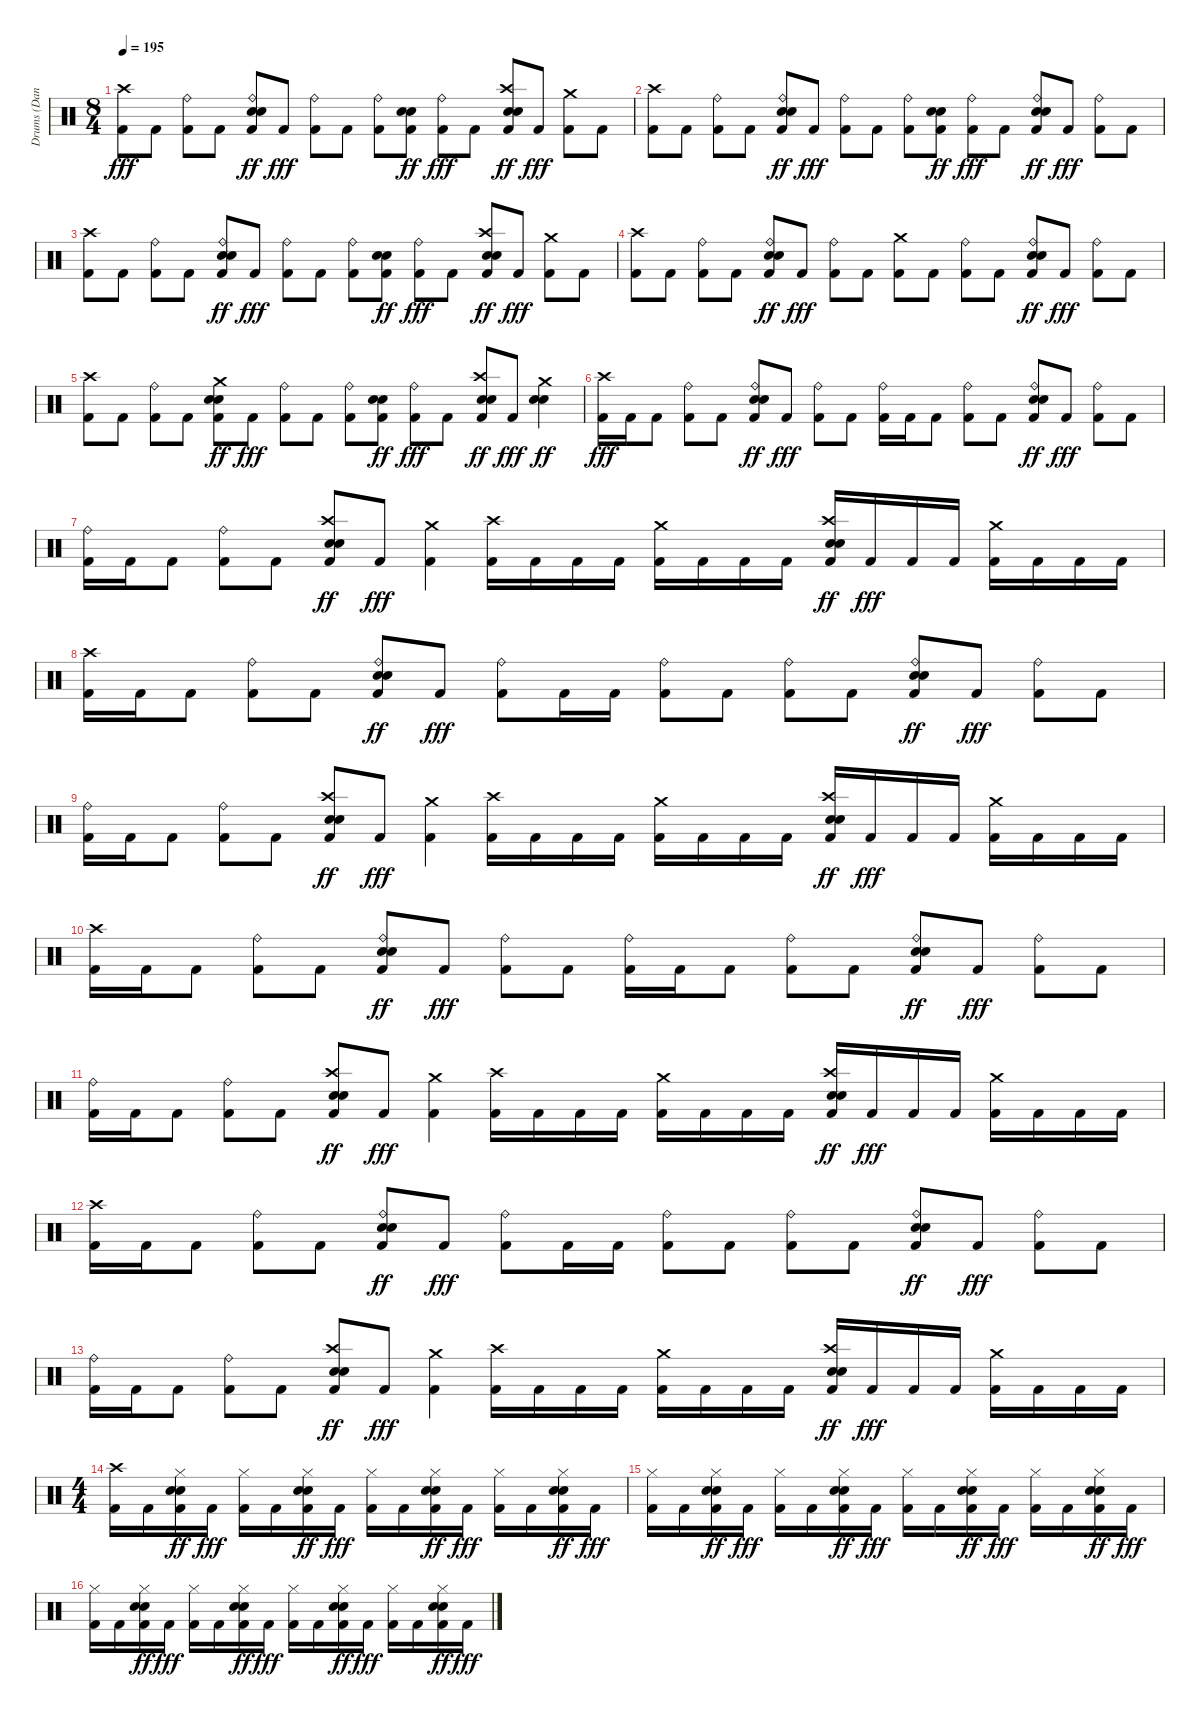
\track ("Drums (Dan Zimmermann)" "Drums (Dan") {instrument percussion}
\staff {score}
\articulation defaults
\ts (8 4)
\tempo 195
\clef neutral
\ks c
("Kick (hit) 2" "Crash high (hit)").8{dy fff} "Kick (hit) 2".8 ("Kick (hit) 2" "Ride (bell)").8 "Kick (hit) 2".8 ("Metronome (bell)" "Kick (hit) 2" "Ride (bell)" "Snare (hit) 2").8{dy ff} "Kick (hit) 2".8{dy fff} ("Kick (hit) 2" "Ride (bell)").8 "Kick (hit) 2".8 ("Kick (hit) 2" "Ride (bell)").8 ("Metronome (bell)" "Kick (hit) 2" "Snare (hit) 2").8{dy ff} ("Kick (hit) 2" "Ride (bell)").8{dy fff} "Kick (hit) 2".8 ("Metronome (bell)" "Kick (hit) 2" "Crash high (hit)" "Snare (hit) 2").8{dy ff} "Kick (hit) 2".8{dy fff} ("Kick (hit) 2" "Crash medium (hit)").8 "Kick (hit) 2".8 |
("Kick (hit) 2" "Crash high (hit)").8 "Kick (hit) 2".8 ("Kick (hit) 2" "Ride (bell)").8 "Kick (hit) 2".8 ("Metronome (bell)" "Kick (hit) 2" "Ride (bell)" "Snare (hit) 2").8{dy ff} "Kick (hit) 2".8{dy fff} ("Kick (hit) 2" "Ride (bell)").8 "Kick (hit) 2".8 ("Kick (hit) 2" "Ride (bell)").8 ("Metronome (bell)" "Kick (hit) 2" "Snare (hit) 2").8{dy ff} ("Kick (hit) 2" "Ride (bell)").8{dy fff} "Kick (hit) 2".8 ("Metronome (bell)" "Kick (hit) 2" "Ride (bell)" "Snare (hit) 2").8{dy ff} "Kick (hit) 2".8{dy fff} ("Kick (hit) 2" "Ride (bell)").8 "Kick (hit) 2".8 |
("Kick (hit) 2" "Crash high (hit)").8 "Kick (hit) 2".8 ("Kick (hit) 2" "Ride (bell)").8 "Kick (hit) 2".8 ("Metronome (bell)" "Kick (hit) 2" "Ride (bell)" "Snare (hit) 2").8{dy ff} "Kick (hit) 2".8{dy fff} ("Kick (hit) 2" "Ride (bell)").8 "Kick (hit) 2".8 ("Kick (hit) 2" "Ride (bell)").8 ("Metronome (bell)" "Kick (hit) 2" "Snare (hit) 2").8{dy ff} ("Kick (hit) 2" "Ride (bell)").8{dy fff} "Kick (hit) 2".8 ("Metronome (bell)" "Kick (hit) 2" "Crash high (hit)" "Snare (hit) 2").8{dy ff} "Kick (hit) 2".8{dy fff} ("Kick (hit) 2" "Crash medium (hit)").8 "Kick (hit) 2".8 |
("Kick (hit) 2" "Crash high (hit)").8 "Kick (hit) 2".8 ("Kick (hit) 2" "Ride (bell)").8 "Kick (hit) 2".8 ("Metronome (bell)" "Kick (hit) 2" "Ride (bell)" "Snare (hit) 2").8{dy ff} "Kick (hit) 2".8{dy fff} ("Kick (hit) 2" "Ride (bell)").8 "Kick (hit) 2".8 ("Kick (hit) 2" "Crash medium (hit)").8 "Kick (hit) 2".8 ("Kick (hit) 2" "Ride (bell)").8 "Kick (hit) 2".8 ("Metronome (bell)" "Kick (hit) 2" "Ride (bell)" "Snare (hit) 2").8{dy ff} "Kick (hit) 2".8{dy fff} ("Kick (hit) 2" "Ride (bell)").8 "Kick (hit) 2".8 |
("Kick (hit) 2" "Crash high (hit)").8 "Kick (hit) 2".8 ("Kick (hit) 2" "Ride (bell)").8 "Kick (hit) 2".8 ("Metronome (bell)" "Kick (hit) 2" "Crash medium (hit)" "Snare (hit) 2").8{dy ff} "Kick (hit) 2".8{dy fff} ("Kick (hit) 2" "Ride (bell)").8 "Kick (hit) 2".8 ("Kick (hit) 2" "Ride (bell)").8 ("Metronome (bell)" "Kick (hit) 2" "Snare (hit) 2").8{dy ff} ("Kick (hit) 2" "Ride (bell)").8{dy fff} "Kick (hit) 2".8 ("Metronome (bell)" "Kick (hit) 2" "Crash high (hit)" "Snare (hit) 2").8{dy ff} "Kick (hit) 2".8{dy fff} ("Metronome (bell)" "Crash medium (hit)" "Snare (hit) 2").4{dy ff} |
("Kick (hit) 2" "Crash high (hit)").16{dy fff} "Kick (hit) 2".16 "Kick (hit) 2".8 ("Kick (hit) 2" "Ride (bell)").8 "Kick (hit) 2".8 ("Metronome (bell)" "Kick (hit) 2" "Ride (bell)" "Snare (hit) 2").8{dy ff} "Kick (hit) 2".8{dy fff} ("Kick (hit) 2" "Ride (bell)").8 "Kick (hit) 2".8 ("Kick (hit) 2" "Ride (bell)").16 "Kick (hit) 2".16 "Kick (hit) 2".8 ("Kick (hit) 2" "Ride (bell)").8 "Kick (hit) 2".8 ("Metronome (bell)" "Kick (hit) 2" "Ride (bell)" "Snare (hit) 2").8{dy ff} "Kick (hit) 2".8{dy fff} ("Kick (hit) 2" "Ride (bell)").8 "Kick (hit) 2".8 |
("Kick (hit) 2" "Ride (bell)").16 "Kick (hit) 2".16 "Kick (hit) 2".8 ("Kick (hit) 2" "Ride (bell)").8 "Kick (hit) 2".8 ("Metronome (bell)" "Kick (hit) 2" "Crash high (hit)" "Snare (hit) 2").8{dy ff} "Kick (hit) 2".8{dy fff} ("Kick (hit) 2" "Crash medium (hit)").4 ("Kick (hit) 2" "Crash high (hit)").16 "Kick (hit) 2".16 "Kick (hit) 2".16 "Kick (hit) 2".16 ("Kick (hit) 2" "Crash medium (hit)").16 "Kick (hit) 2".16 "Kick (hit) 2".16 "Kick (hit) 2".16 ("Metronome (bell)" "Kick (hit) 2" "Crash high (hit)" "Snare (hit) 2").16{dy ff} "Kick (hit) 2".16{dy fff} "Kick (hit) 2".16 "Kick (hit) 2".16 ("Kick (hit) 2" "Crash medium (hit)").16 "Kick (hit) 2".16 "Kick (hit) 2".16 "Kick (hit) 2".16 |
("Kick (hit) 2" "Crash high (hit)").16 "Kick (hit) 2".16 "Kick (hit) 2".8 ("Kick (hit) 2" "Ride (bell)").8 "Kick (hit) 2".8 ("Metronome (bell)" "Kick (hit) 2" "Ride (bell)" "Snare (hit) 2").8{dy ff} "Kick (hit) 2".8{dy fff} ("Kick (hit) 2" "Ride (bell)").8 "Kick (hit) 2".16 "Kick (hit) 2".16 ("Kick (hit) 2" "Ride (bell)").8 "Kick (hit) 2".8 ("Kick (hit) 2" "Ride (bell)").8 "Kick (hit) 2".8 ("Metronome (bell)" "Kick (hit) 2" "Ride (bell)" "Snare (hit) 2").8{dy ff} "Kick (hit) 2".8{dy fff} ("Kick (hit) 2" "Ride (bell)").8 "Kick (hit) 2".8 |
("Kick (hit) 2" "Ride (bell)").16 "Kick (hit) 2".16 "Kick (hit) 2".8 ("Kick (hit) 2" "Ride (bell)").8 "Kick (hit) 2".8 ("Metronome (bell)" "Kick (hit) 2" "Crash high (hit)" "Snare (hit) 2").8{dy ff} "Kick (hit) 2".8{dy fff} ("Kick (hit) 2" "Crash medium (hit)").4 ("Kick (hit) 2" "Crash high (hit)").16 "Kick (hit) 2".16 "Kick (hit) 2".16 "Kick (hit) 2".16 ("Kick (hit) 2" "Crash medium (hit)").16 "Kick (hit) 2".16 "Kick (hit) 2".16 "Kick (hit) 2".16 ("Metronome (bell)" "Kick (hit) 2" "Crash high (hit)" "Snare (hit) 2").16{dy ff} "Kick (hit) 2".16{dy fff} "Kick (hit) 2".16 "Kick (hit) 2".16 ("Kick (hit) 2" "Crash medium (hit)").16 "Kick (hit) 2".16 "Kick (hit) 2".16 "Kick (hit) 2".16 |
("Kick (hit) 2" "Crash high (hit)").16 "Kick (hit) 2".16 "Kick (hit) 2".8 ("Kick (hit) 2" "Ride (bell)").8 "Kick (hit) 2".8 ("Metronome (bell)" "Kick (hit) 2" "Ride (bell)" "Snare (hit) 2").8{dy ff} "Kick (hit) 2".8{dy fff} ("Kick (hit) 2" "Ride (bell)").8 "Kick (hit) 2".8 ("Kick (hit) 2" "Ride (bell)").16 "Kick (hit) 2".16 "Kick (hit) 2".8 ("Kick (hit) 2" "Ride (bell)").8 "Kick (hit) 2".8 ("Metronome (bell)" "Kick (hit) 2" "Ride (bell)" "Snare (hit) 2").8{dy ff} "Kick (hit) 2".8{dy fff} ("Kick (hit) 2" "Ride (bell)").8 "Kick (hit) 2".8 |
("Kick (hit) 2" "Ride (bell)").16 "Kick (hit) 2".16 "Kick (hit) 2".8 ("Kick (hit) 2" "Ride (bell)").8 "Kick (hit) 2".8 ("Metronome (bell)" "Kick (hit) 2" "Crash high (hit)" "Snare (hit) 2").8{dy ff} "Kick (hit) 2".8{dy fff} ("Kick (hit) 2" "Crash medium (hit)").4 ("Kick (hit) 2" "Crash high (hit)").16 "Kick (hit) 2".16 "Kick (hit) 2".16 "Kick (hit) 2".16 ("Kick (hit) 2" "Crash medium (hit)").16 "Kick (hit) 2".16 "Kick (hit) 2".16 "Kick (hit) 2".16 ("Metronome (bell)" "Kick (hit) 2" "Crash high (hit)" "Snare (hit) 2").16{dy ff} "Kick (hit) 2".16{dy fff} "Kick (hit) 2".16 "Kick (hit) 2".16 ("Kick (hit) 2" "Crash medium (hit)").16 "Kick (hit) 2".16 "Kick (hit) 2".16 "Kick (hit) 2".16 |
("Kick (hit) 2" "Crash high (hit)").16 "Kick (hit) 2".16 "Kick (hit) 2".8 ("Kick (hit) 2" "Ride (bell)").8 "Kick (hit) 2".8 ("Metronome (bell)" "Kick (hit) 2" "Ride (bell)" "Snare (hit) 2").8{dy ff} "Kick (hit) 2".8{dy fff} ("Kick (hit) 2" "Ride (bell)").8 "Kick (hit) 2".16 "Kick (hit) 2".16 ("Kick (hit) 2" "Ride (bell)").8 "Kick (hit) 2".8 ("Kick (hit) 2" "Ride (bell)").8 "Kick (hit) 2".8 ("Metronome (bell)" "Kick (hit) 2" "Ride (bell)" "Snare (hit) 2").8{dy ff} "Kick (hit) 2".8{dy fff} ("Kick (hit) 2" "Ride (bell)").8 "Kick (hit) 2".8 |
("Kick (hit) 2" "Ride (bell)").16 "Kick (hit) 2".16 "Kick (hit) 2".8 ("Kick (hit) 2" "Ride (bell)").8 "Kick (hit) 2".8 ("Metronome (bell)" "Kick (hit) 2" "Crash high (hit)" "Snare (hit) 2").8{dy ff} "Kick (hit) 2".8{dy fff} ("Kick (hit) 2" "Crash medium (hit)").4 ("Kick (hit) 2" "Crash high (hit)").16 "Kick (hit) 2".16 "Kick (hit) 2".16 "Kick (hit) 2".16 ("Kick (hit) 2" "Crash medium (hit)").16 "Kick (hit) 2".16 "Kick (hit) 2".16 "Kick (hit) 2".16 ("Metronome (bell)" "Kick (hit) 2" "Crash high (hit)" "Snare (hit) 2").16{dy ff} "Kick (hit) 2".16{dy fff} "Kick (hit) 2".16 "Kick (hit) 2".16 ("Kick (hit) 2" "Crash medium (hit)").16 "Kick (hit) 2".16 "Kick (hit) 2".16 "Kick (hit) 2".16 |
\ts (4 4)
("Kick (hit) 2" "Crash high (hit)").16 "Kick (hit) 2".16 ("Metronome (bell)" "Kick (hit) 2" "Hi-Hat (closed)" "Snare (hit) 2").16{dy ff} "Kick (hit) 2".16{dy fff} ("Kick (hit) 2" "Hi-Hat (closed)").16 "Kick (hit) 2".16 ("Metronome (bell)" "Kick (hit) 2" "Hi-Hat (closed)" "Snare (hit) 2").16{dy ff} "Kick (hit) 2".16{dy fff} ("Kick (hit) 2" "Hi-Hat (closed)").16 "Kick (hit) 2".16 ("Metronome (bell)" "Kick (hit) 2" "Hi-Hat (closed)" "Snare (hit) 2").16{dy ff} "Kick (hit) 2".16{dy fff} ("Kick (hit) 2" "Hi-Hat (closed)").16 "Kick (hit) 2".16 ("Metronome (bell)" "Kick (hit) 2" "Hi-Hat (closed)" "Snare (hit) 2").16{dy ff} "Kick (hit) 2".16{dy fff} |
("Kick (hit) 2" "Hi-Hat (closed)").16 "Kick (hit) 2".16 ("Metronome (bell)" "Kick (hit) 2" "Hi-Hat (closed)" "Snare (hit) 2").16{dy ff} "Kick (hit) 2".16{dy fff} ("Kick (hit) 2" "Hi-Hat (closed)").16 "Kick (hit) 2".16 ("Metronome (bell)" "Kick (hit) 2" "Hi-Hat (closed)" "Snare (hit) 2").16{dy ff} "Kick (hit) 2".16{dy fff} ("Kick (hit) 2" "Hi-Hat (closed)").16 "Kick (hit) 2".16 ("Metronome (bell)" "Kick (hit) 2" "Hi-Hat (closed)" "Snare (hit) 2").16{dy ff} "Kick (hit) 2".16{dy fff} ("Kick (hit) 2" "Hi-Hat (closed)").16 "Kick (hit) 2".16 ("Metronome (bell)" "Kick (hit) 2" "Hi-Hat (closed)" "Snare (hit) 2").16{dy ff} "Kick (hit) 2".16{dy fff} |
("Kick (hit) 2" "Hi-Hat (closed)").16 "Kick (hit) 2".16 ("Metronome (bell)" "Kick (hit) 2" "Hi-Hat (closed)" "Snare (hit) 2").16{dy ff} "Kick (hit) 2".16{dy fff} ("Kick (hit) 2" "Hi-Hat (closed)").16 "Kick (hit) 2".16 ("Metronome (bell)" "Kick (hit) 2" "Hi-Hat (closed)" "Snare (hit) 2").16{dy ff} "Kick (hit) 2".16{dy fff} ("Kick (hit) 2" "Hi-Hat (closed)").16 "Kick (hit) 2".16 ("Metronome (bell)" "Kick (hit) 2" "Hi-Hat (closed)" "Snare (hit) 2").16{dy ff} "Kick (hit) 2".16{dy fff} ("Kick (hit) 2" "Hi-Hat (closed)").16 "Kick (hit) 2".16 ("Metronome (bell)" "Kick (hit) 2" "Hi-Hat (closed)" "Snare (hit) 2").16{dy ff} "Kick (hit) 2".16{dy fff}
